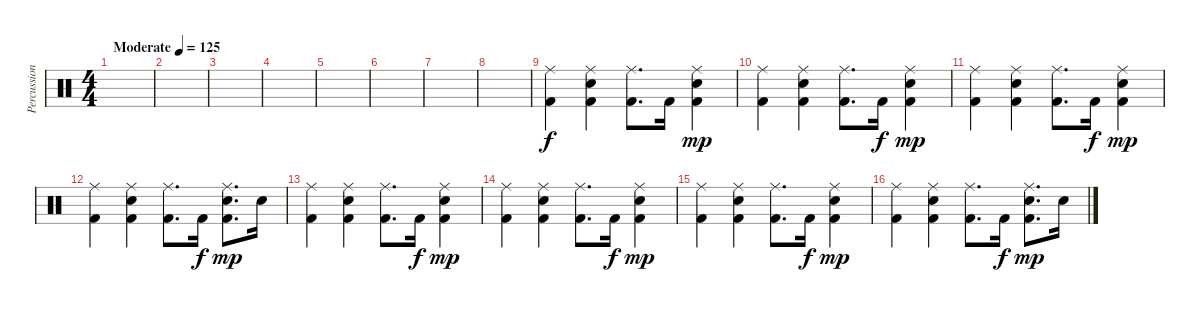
\track ("Percussions" "Percussion") {instrument percussion}
\staff {score}
\articulation defaults
\ts (4 4)
\tempo (125 "Moderate")
\clef neutral
\ks c
|
|
|
|
|
|
|
|
("Ride (middle)" "Kick (hit) 2").4 ("Ride (middle)" "Electric Snare (hit)" "Kick (hit) 2").4 ("Ride (middle)" "Kick (hit) 2").8{d} "Kick (hit) 2".16{dy f} ("Ride (middle)" "Electric Snare (hit)" "Kick (hit) 2").4{dy mp} |
("Ride (middle)" "Kick (hit) 2").4 ("Ride (middle)" "Electric Snare (hit)" "Kick (hit) 2").4 ("Ride (middle)" "Kick (hit) 2").8{d} "Kick (hit) 2".16{dy f} ("Ride (middle)" "Electric Snare (hit)" "Kick (hit) 2").4{dy mp} |
("Ride (middle)" "Kick (hit) 2").4 ("Ride (middle)" "Electric Snare (hit)" "Kick (hit) 2").4 ("Ride (middle)" "Kick (hit) 2").8{d} "Kick (hit) 2".16{dy f} ("Ride (middle)" "Electric Snare (hit)" "Kick (hit) 2").4{dy mp} |
("Ride (middle)" "Kick (hit) 2").4 ("Ride (middle)" "Electric Snare (hit)" "Kick (hit) 2").4 ("Ride (middle)" "Kick (hit) 2").8{d} "Kick (hit) 2".16{dy f} ("Ride (middle)" "Electric Snare (hit)" "Kick (hit) 2").8{d dy mp} "Electric Snare (hit)".16 |
("Ride (middle)" "Kick (hit) 2").4 ("Ride (middle)" "Electric Snare (hit)" "Kick (hit) 2").4 ("Ride (middle)" "Kick (hit) 2").8{d} "Kick (hit) 2".16{dy f} ("Ride (middle)" "Electric Snare (hit)" "Kick (hit) 2").4{dy mp} |
("Ride (middle)" "Kick (hit) 2").4 ("Ride (middle)" "Electric Snare (hit)" "Kick (hit) 2").4 ("Ride (middle)" "Kick (hit) 2").8{d} "Kick (hit) 2".16{dy f} ("Ride (middle)" "Electric Snare (hit)" "Kick (hit) 2").4{dy mp} |
("Ride (middle)" "Kick (hit) 2").4 ("Ride (middle)" "Electric Snare (hit)" "Kick (hit) 2").4 ("Ride (middle)" "Kick (hit) 2").8{d} "Kick (hit) 2".16{dy f} ("Ride (middle)" "Electric Snare (hit)" "Kick (hit) 2").4{dy mp} |
("Ride (middle)" "Kick (hit) 2").4 ("Ride (middle)" "Electric Snare (hit)" "Kick (hit) 2").4 ("Ride (middle)" "Kick (hit) 2").8{d} "Kick (hit) 2".16{dy f} ("Ride (middle)" "Electric Snare (hit)" "Kick (hit) 2").8{d dy mp} "Electric Snare (hit)".16
